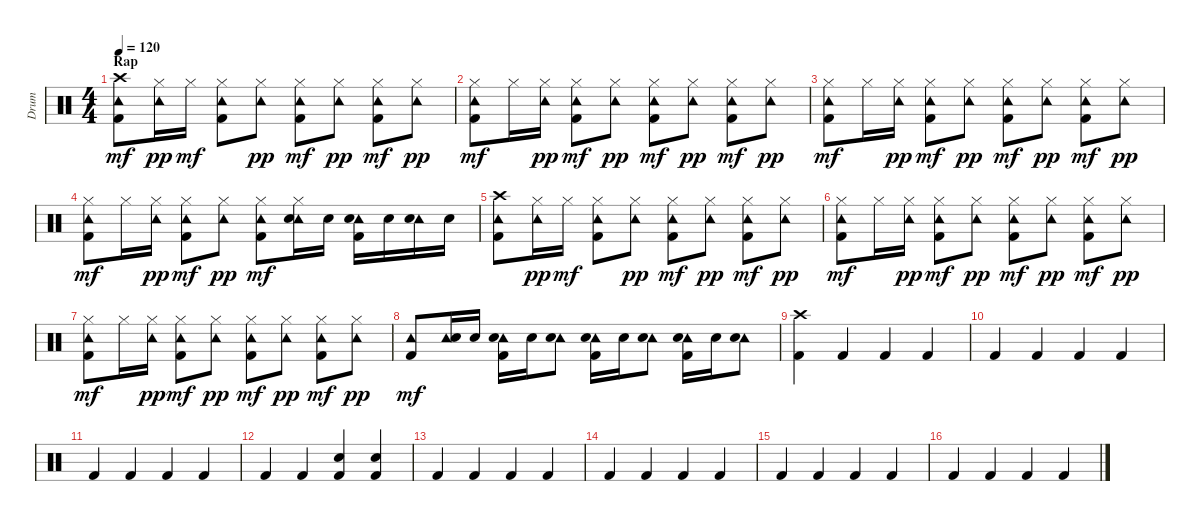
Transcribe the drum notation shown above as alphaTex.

\track ("Drum" "Drum") {instrument percussion}
\staff {score}
\articulation defaults
\ts (4 4)
\section ("" "Rap")
\tempo 120
\clef neutral
\ks c
("Crash high (hit)" "Tambourine (hit)" "Kick (hit) 2").8{dy mf} ("Hi-Hat (closed)" "Tambourine (hit)").16{dy pp} "Hi-Hat (closed)".16{dy mf} ("Hi-Hat (closed)" "Tambourine (hit)" "Kick (hit) 2").8 ("Hi-Hat (closed)" "Tambourine (hit)").8{dy pp} ("Hi-Hat (closed)" "Tambourine (hit)" "Kick (hit) 2").8{dy mf} ("Hi-Hat (closed)" "Tambourine (hit)").8{dy pp} ("Hi-Hat (closed)" "Tambourine (hit)" "Kick (hit) 2").8{dy mf} ("Hi-Hat (closed)" "Tambourine (hit)").8{dy pp} |
("Hi-Hat (closed)" "Tambourine (hit)" "Kick (hit) 2").8{dy mf} "Hi-Hat (closed)".16 ("Hi-Hat (closed)" "Tambourine (hit)").16{dy pp} ("Hi-Hat (closed)" "Tambourine (hit)" "Kick (hit) 2").8{dy mf} ("Hi-Hat (closed)" "Tambourine (hit)").8{dy pp} ("Hi-Hat (closed)" "Tambourine (hit)" "Kick (hit) 2").8{dy mf} ("Hi-Hat (closed)" "Tambourine (hit)").8{dy pp} ("Hi-Hat (closed)" "Tambourine (hit)" "Kick (hit) 2").8{dy mf} ("Hi-Hat (closed)" "Tambourine (hit)").8{dy pp} |
("Hi-Hat (closed)" "Tambourine (hit)" "Kick (hit) 2").8{dy mf} "Hi-Hat (closed)".16 ("Hi-Hat (closed)" "Tambourine (hit)").16{dy pp} ("Hi-Hat (closed)" "Tambourine (hit)" "Kick (hit) 2").8{dy mf} ("Hi-Hat (closed)" "Tambourine (hit)").8{dy pp} ("Hi-Hat (closed)" "Tambourine (hit)" "Kick (hit) 2").8{dy mf} ("Hi-Hat (closed)" "Tambourine (hit)").8{dy pp} ("Hi-Hat (closed)" "Tambourine (hit)" "Kick (hit) 2").8{dy mf} ("Hi-Hat (closed)" "Tambourine (hit)").8{dy pp} |
("Hi-Hat (closed)" "Tambourine (hit)" "Kick (hit) 2").8{dy mf} "Hi-Hat (closed)".16 ("Hi-Hat (closed)" "Tambourine (hit)").16{dy pp} ("Hi-Hat (closed)" "Tambourine (hit)" "Kick (hit) 2").8{dy mf} ("Hi-Hat (closed)" "Tambourine (hit)").8{dy pp} ("Hi-Hat (closed)" "Tambourine (hit)" "Kick (hit) 2").8{dy mf} ("Hi-Hat (closed)" "Tambourine (hit)" "Snare (hit) 2").16 "Snare (hit) 2".16 ("Tambourine (hit)" "Snare (hit) 2" "Kick (hit) 2").16 "Snare (hit) 2".16 ("Tambourine (hit)" "Snare (hit) 2").16 "Snare (hit) 2".16 |
("Crash high (hit)" "Tambourine (hit)" "Kick (hit) 2").8 ("Hi-Hat (closed)" "Tambourine (hit)").16{dy pp} "Hi-Hat (closed)".16{dy mf} ("Hi-Hat (closed)" "Tambourine (hit)" "Kick (hit) 2").8 ("Hi-Hat (closed)" "Tambourine (hit)").8{dy pp} ("Hi-Hat (closed)" "Tambourine (hit)" "Kick (hit) 2").8{dy mf} ("Hi-Hat (closed)" "Tambourine (hit)").8{dy pp} ("Hi-Hat (closed)" "Tambourine (hit)" "Kick (hit) 2").8{dy mf} ("Hi-Hat (closed)" "Tambourine (hit)").8{dy pp} |
("Hi-Hat (closed)" "Tambourine (hit)" "Kick (hit) 2").8{dy mf} "Hi-Hat (closed)".16 ("Hi-Hat (closed)" "Tambourine (hit)").16{dy pp} ("Hi-Hat (closed)" "Tambourine (hit)" "Kick (hit) 2").8{dy mf} ("Hi-Hat (closed)" "Tambourine (hit)").8{dy pp} ("Hi-Hat (closed)" "Tambourine (hit)" "Kick (hit) 2").8{dy mf} ("Hi-Hat (closed)" "Tambourine (hit)").8{dy pp} ("Hi-Hat (closed)" "Tambourine (hit)" "Kick (hit) 2").8{dy mf} ("Hi-Hat (closed)" "Tambourine (hit)").8{dy pp} |
("Hi-Hat (closed)" "Tambourine (hit)" "Kick (hit) 2").8{dy mf} "Hi-Hat (closed)".16 ("Hi-Hat (closed)" "Tambourine (hit)").16{dy pp} ("Hi-Hat (closed)" "Tambourine (hit)" "Kick (hit) 2").8{dy mf} ("Hi-Hat (closed)" "Tambourine (hit)").8{dy pp} ("Hi-Hat (closed)" "Tambourine (hit)" "Kick (hit) 2").8{dy mf} ("Hi-Hat (closed)" "Tambourine (hit)").8{dy pp} ("Hi-Hat (closed)" "Tambourine (hit)" "Kick (hit) 2").8{dy mf} ("Hi-Hat (closed)" "Tambourine (hit)").8{dy pp} |
("Tambourine (hit)" "Kick (hit) 2").8{dy mf} ("Tambourine (hit)" "Snare (hit) 2").16 "Snare (hit) 2".16 ("Tambourine (hit)" "Snare (hit) 2" "Kick (hit) 2").16 "Snare (hit) 2".16 ("Tambourine (hit)" "Snare (hit) 2").8 ("Tambourine (hit)" "Snare (hit) 2" "Kick (hit) 2").16 "Snare (hit) 2".16 ("Tambourine (hit)" "Snare (hit) 2").8 ("Tambourine (hit)" "Snare (hit) 2" "Kick (hit) 2").16 "Snare (hit) 2".16 ("Tambourine (hit)" "Snare (hit) 2").8 |
("Crash high (hit)" "Kick (hit) 2").4 "Kick (hit) 2".4 "Kick (hit) 2".4 "Kick (hit) 2".4 |
"Kick (hit) 2".4 "Kick (hit) 2".4 "Kick (hit) 2".4 "Kick (hit) 2".4 |
"Kick (hit) 2".4 "Kick (hit) 2".4 "Kick (hit) 2".4 "Kick (hit) 2".4 |
"Kick (hit) 2".4 "Kick (hit) 2".4 ("Snare (hit) 2" "Kick (hit) 2").4 ("Snare (hit) 2" "Kick (hit) 2").4 |
"Kick (hit) 2".4 "Kick (hit) 2".4 "Kick (hit) 2".4 "Kick (hit) 2".4 |
"Kick (hit) 2".4 "Kick (hit) 2".4 "Kick (hit) 2".4 "Kick (hit) 2".4 |
"Kick (hit) 2".4 "Kick (hit) 2".4 "Kick (hit) 2".4 "Kick (hit) 2".4 |
"Kick (hit) 2".4 "Kick (hit) 2".4 "Kick (hit) 2".4 "Kick (hit) 2".4
